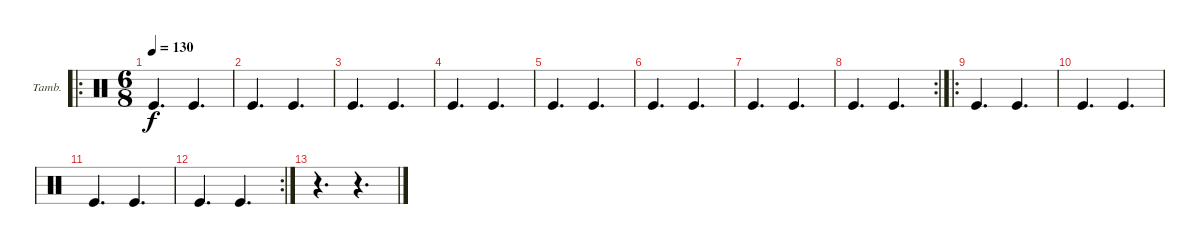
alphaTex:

\bracketExtendMode groupsimilarinstruments
\firstSystemTrackNameOrientation horizontal
\otherSystemsTrackNameOrientation horizontal
\track ("Tambourine" "Tamb.") {instrument percussion}
\staff {score}
\articulation defaults
\ro
\ts (6 8)
\tempo 130
\clef neutral
\ks c "Kick (hit)".4{d dy f} "Kick (hit)".4{d}
|
"Kick (hit)".4{d} "Kick (hit)".4{d} |
"Kick (hit)".4{d} "Kick (hit)".4{d} |
"Kick (hit)".4{d} "Kick (hit)".4{d} |
"Kick (hit)".4{d} "Kick (hit)".4{d} |
"Kick (hit)".4{d} "Kick (hit)".4{d} |
"Kick (hit)".4{d} "Kick (hit)".4{d} |
\rc 2 "Kick (hit)".4{d} "Kick (hit)".4{d}
|
\ro "Kick (hit)".4{d} "Kick (hit)".4{d}
|
"Kick (hit)".4{d} "Kick (hit)".4{d} |
"Kick (hit)".4{d} "Kick (hit)".4{d} |
\rc 2 "Kick (hit)".4{d} "Kick (hit)".4{d}
|
r.4{d} r.4{d}
